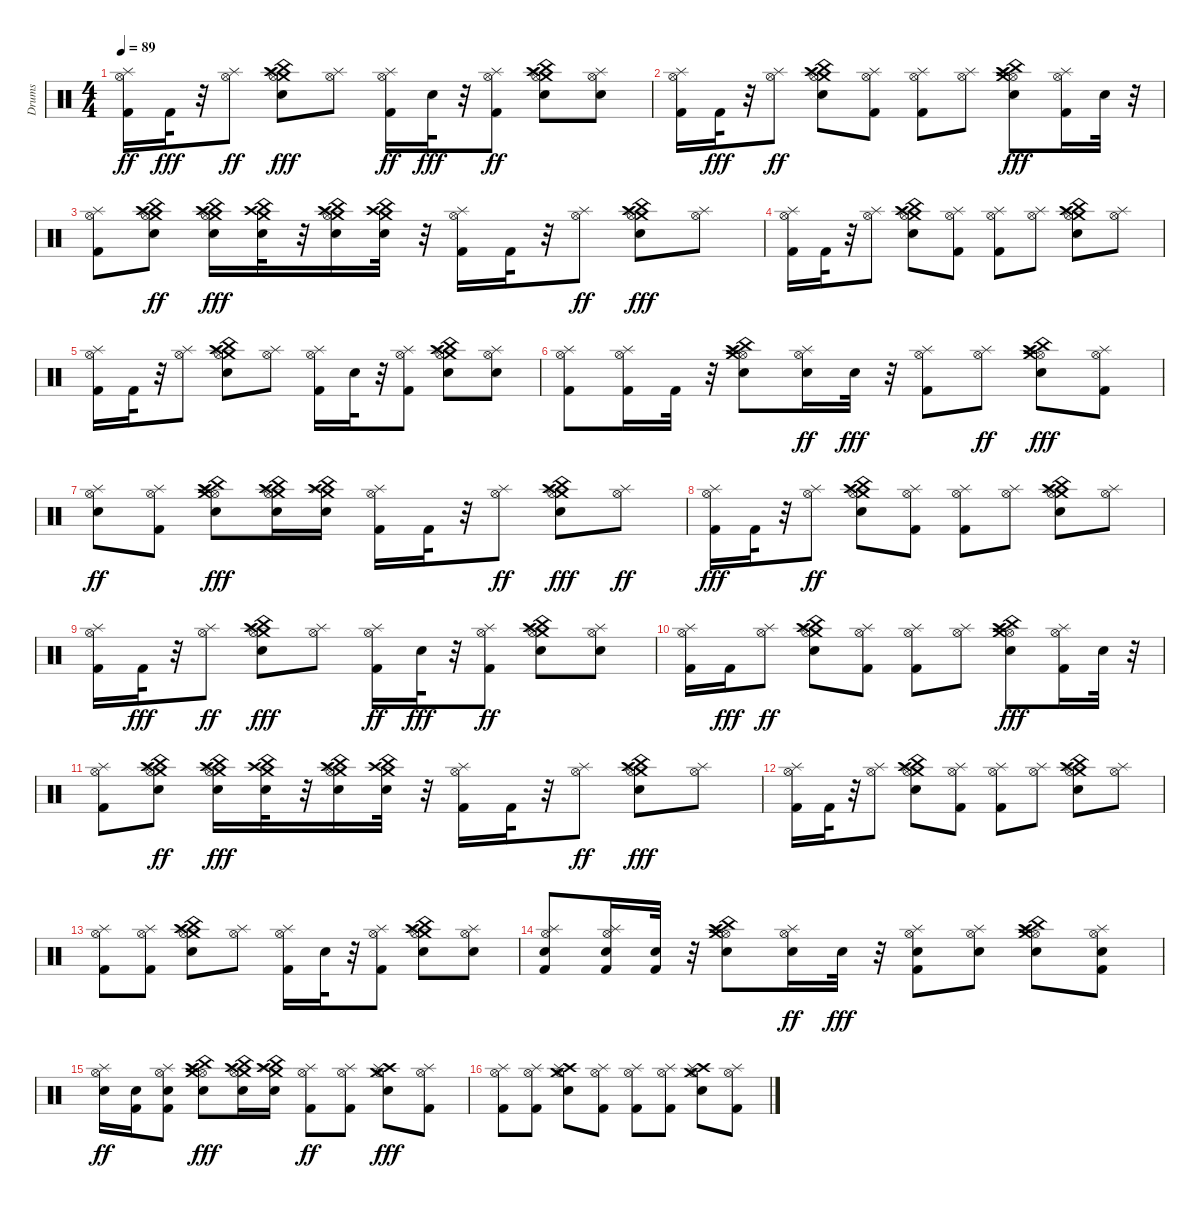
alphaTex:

\track ("Drums" "Drums") {instrument percussion}
\staff {score}
\articulation defaults
\ts (4 4)
\tempo 89
\clef neutral
\ks c
("Kick (hit) 2" "Hi-Hat (open)" "Splash (hit)").16{dy ff} "Kick (hit) 2".32{dy fff} r.32 ("Hi-Hat (open)" "Splash (hit)").8{dy ff} ("China (hit)" "Snare (hit) 2" "Crash medium (hit)" "Crash high (hit)" "Hi-Hat (open)" "Splash (hit)").8{dy fff} ("Hi-Hat (open)" "Splash (hit)").8 ("Kick (hit) 2" "Hi-Hat (open)" "Splash (hit)").16{dy ff} "Snare (hit) 2".32{dy fff} r.32 ("Kick (hit) 2" "Hi-Hat (open)" "Splash (hit)").8{dy ff} ("China (hit)" "Snare (hit) 2" "Crash high (hit)" "Crash medium (hit)" "Hi-Hat (open)" "Splash (hit)").8 ("Hi-Hat (open)" "Snare (hit) 2" "Splash (hit)").8 |
("Kick (hit) 2" "Hi-Hat (open)" "Splash (hit)").16 "Kick (hit) 2".32{dy fff} r.32 ("Hi-Hat (open)" "Splash (hit)").8{dy ff} ("Snare (hit) 2" "China (hit)" "Crash medium (hit)" "Crash high (hit)" "Hi-Hat (open)" "Splash (hit)").8 ("Hi-Hat (open)" "Kick (hit) 2" "Splash (hit)").8 ("Kick (hit) 2" "Hi-Hat (open)" "Splash (hit)").8 ("Hi-Hat (open)" "Splash (hit)").8 ("Snare (hit) 2" "Crash high (hit)" "China (hit)" "Hi-Hat (open)" "Crash medium (hit)" "Splash (hit)").8{dy fff} ("Kick (hit) 2" "Hi-Hat (open)" "Splash (hit)").16 "Snare (hit) 2".32 r.32 |
("Kick (hit) 2" "Hi-Hat (open)" "Splash (hit)").8 ("Crash high (hit)" "China (hit)" "Crash medium (hit)" "Snare (hit) 2" "Hi-Hat (open)" "Splash (hit)").8{dy ff} ("Crash medium (hit)" "China (hit)" "Crash high (hit)" "Snare (hit) 2" "Hi-Hat (open)" "Splash (hit)").16{dy fff} ("Crash medium (hit)" "China (hit)" "Crash high (hit)" "Snare (hit) 2").32 r.32 ("Crash medium (hit)" "China (hit)" "Crash high (hit)" "Hi-Hat (open)" "Snare (hit) 2" "Splash (hit)").16 ("Crash medium (hit)" "China (hit)" "Snare (hit) 2" "Crash high (hit)").32 r.32 ("Hi-Hat (open)" "Splash (hit)" "Kick (hit) 2").16 "Kick (hit) 2".32 r.32 ("Hi-Hat (open)" "Splash (hit)").8{dy ff} ("China (hit)" "Crash high (hit)" "Crash medium (hit)" "Hi-Hat (open)" "Splash (hit)" "Snare (hit) 2").8{dy fff} ("Hi-Hat (open)" "Splash (hit)").8 |
("Hi-Hat (open)" "Splash (hit)" "Kick (hit) 2").16 "Kick (hit) 2".32 r.32 ("Hi-Hat (open)" "Splash (hit)").8 ("China (hit)" "Crash medium (hit)" "Crash high (hit)" "Hi-Hat (open)" "Snare (hit) 2" "Splash (hit)").8 ("Kick (hit) 2" "Hi-Hat (open)" "Splash (hit)").8 ("Kick (hit) 2" "Hi-Hat (open)" "Splash (hit)").8 ("Hi-Hat (open)" "Splash (hit)").8 ("China (hit)" "Crash high (hit)" "Crash medium (hit)" "Hi-Hat (open)" "Snare (hit) 2" "Splash (hit)").8 ("Hi-Hat (open)" "Splash (hit)").8 |
("Kick (hit) 2" "Hi-Hat (open)" "Splash (hit)").16 "Kick (hit) 2".32 r.32 ("Hi-Hat (open)" "Splash (hit)").8 ("China (hit)" "Snare (hit) 2" "Crash medium (hit)" "Crash high (hit)" "Hi-Hat (open)" "Splash (hit)").8 ("Hi-Hat (open)" "Splash (hit)").8 ("Kick (hit) 2" "Hi-Hat (open)" "Splash (hit)").16 "Snare (hit) 2".32 r.32 ("Kick (hit) 2" "Hi-Hat (open)" "Splash (hit)").8 ("Crash high (hit)" "China (hit)" "Snare (hit) 2" "Crash medium (hit)" "Hi-Hat (open)" "Splash (hit)").8 ("Hi-Hat (open)" "Snare (hit) 2" "Splash (hit)").8 |
("Kick (hit) 2" "Hi-Hat (open)" "Splash (hit)").8 ("Kick (hit) 2" "Hi-Hat (open)" "Splash (hit)").16 "Kick (hit) 2".32 r.32 ("Snare (hit) 2" "Hi-Hat (open)" "Crash high (hit)" "China (hit)" "Crash medium (hit)" "Splash (hit)").8 ("Snare (hit) 2" "Hi-Hat (open)" "Splash (hit)").16{dy ff} "Snare (hit) 2".32{dy fff} r.32 ("Kick (hit) 2" "Hi-Hat (open)" "Splash (hit)").8 ("Hi-Hat (open)" "Splash (hit)").8{dy ff} ("Snare (hit) 2" "Hi-Hat (open)" "Splash (hit)" "Crash high (hit)" "Crash medium (hit)" "China (hit)").8{dy fff} ("Kick (hit) 2" "Hi-Hat (open)" "Splash (hit)").8 |
("Snare (hit) 2" "Hi-Hat (open)" "Splash (hit)").8{dy ff} ("Kick (hit) 2" "Hi-Hat (open)" "Splash (hit)").8 ("Hi-Hat (open)" "Snare (hit) 2" "Crash high (hit)" "Crash medium (hit)" "China (hit)" "Splash (hit)").8{dy fff} ("Crash medium (hit)" "Splash (hit)" "Hi-Hat (open)" "Snare (hit) 2" "Crash high (hit)" "China (hit)").16 ("Splash (hit)" "Crash high (hit)" "China (hit)" "Crash medium (hit)" "Snare (hit) 2").16 ("Hi-Hat (open)" "Splash (hit)" "Kick (hit) 2").16{volume 14} "Kick (hit) 2".32 r.32 ("Hi-Hat (open)" "Splash (hit)").8{dy ff} ("China (hit)" "Crash high (hit)" "Crash medium (hit)" "Hi-Hat (open)" "Splash (hit)" "Snare (hit) 2").8{dy fff} ("Hi-Hat (open)" "Splash (hit)").8{dy ff} |
("Hi-Hat (open)" "Splash (hit)" "Kick (hit) 2").16{dy fff} "Kick (hit) 2".32 r.32 ("Hi-Hat (open)" "Splash (hit)").8{dy ff} ("China (hit)" "Crash medium (hit)" "Crash high (hit)" "Hi-Hat (open)" "Snare (hit) 2" "Splash (hit)").8 ("Kick (hit) 2" "Hi-Hat (open)" "Splash (hit)").8 ("Kick (hit) 2" "Hi-Hat (open)" "Splash (hit)").8 ("Hi-Hat (open)" "Splash (hit)").8 ("China (hit)" "Crash high (hit)" "Crash medium (hit)" "Hi-Hat (open)" "Snare (hit) 2" "Splash (hit)").8 ("Hi-Hat (open)" "Splash (hit)").8 |
("Kick (hit) 2" "Hi-Hat (open)" "Splash (hit)").16 "Kick (hit) 2".32{dy fff} r.32 ("Hi-Hat (open)" "Splash (hit)").8{dy ff} ("China (hit)" "Snare (hit) 2" "Crash medium (hit)" "Crash high (hit)" "Hi-Hat (open)" "Splash (hit)").8{dy fff} ("Hi-Hat (open)" "Splash (hit)").8 ("Kick (hit) 2" "Hi-Hat (open)" "Splash (hit)").16{dy ff} "Snare (hit) 2".32{dy fff} r.32 ("Kick (hit) 2" "Hi-Hat (open)" "Splash (hit)").8{dy ff} ("China (hit)" "Snare (hit) 2" "Crash high (hit)" "Crash medium (hit)" "Hi-Hat (open)" "Splash (hit)").8 ("Hi-Hat (open)" "Snare (hit) 2" "Splash (hit)").8 |
("Kick (hit) 2" "Hi-Hat (open)" "Splash (hit)").16 "Kick (hit) 2".16{dy fff} ("Hi-Hat (open)" "Splash (hit)").8{dy ff} ("Snare (hit) 2" "China (hit)" "Crash medium (hit)" "Crash high (hit)" "Hi-Hat (open)" "Splash (hit)").8 ("Hi-Hat (open)" "Kick (hit) 2" "Splash (hit)").8 ("Kick (hit) 2" "Hi-Hat (open)" "Splash (hit)").8 ("Hi-Hat (open)" "Splash (hit)").8 ("Snare (hit) 2" "Crash high (hit)" "China (hit)" "Hi-Hat (open)" "Crash medium (hit)" "Splash (hit)").8{dy fff} ("Kick (hit) 2" "Hi-Hat (open)" "Splash (hit)").16 "Snare (hit) 2".32 r.32 |
("Kick (hit) 2" "Hi-Hat (open)" "Splash (hit)").8 ("Crash high (hit)" "China (hit)" "Crash medium (hit)" "Snare (hit) 2" "Hi-Hat (open)" "Splash (hit)").8{dy ff} ("Crash medium (hit)" "China (hit)" "Crash high (hit)" "Snare (hit) 2" "Hi-Hat (open)" "Splash (hit)").16{dy fff} ("Snare (hit) 2" "Crash medium (hit)" "China (hit)" "Crash high (hit)").32 r.32 ("Crash medium (hit)" "China (hit)" "Crash high (hit)" "Hi-Hat (open)" "Snare (hit) 2" "Splash (hit)").16 ("Crash medium (hit)" "China (hit)" "Snare (hit) 2" "Crash high (hit)").32 r.32 ("Hi-Hat (open)" "Splash (hit)" "Kick (hit) 2").16 "Kick (hit) 2".32 r.32 ("Hi-Hat (open)" "Splash (hit)").8{dy ff} ("China (hit)" "Crash high (hit)" "Crash medium (hit)" "Hi-Hat (open)" "Splash (hit)" "Snare (hit) 2").8{dy fff} ("Hi-Hat (open)" "Splash (hit)").8 |
("Hi-Hat (open)" "Splash (hit)" "Kick (hit) 2").16 "Kick (hit) 2".32 r.32 ("Hi-Hat (open)" "Splash (hit)").8 ("China (hit)" "Crash medium (hit)" "Crash high (hit)" "Hi-Hat (open)" "Snare (hit) 2" "Splash (hit)").8 ("Kick (hit) 2" "Hi-Hat (open)" "Splash (hit)").8 ("Kick (hit) 2" "Hi-Hat (open)" "Splash (hit)").8 ("Hi-Hat (open)" "Splash (hit)").8 ("China (hit)" "Crash high (hit)" "Crash medium (hit)" "Hi-Hat (open)" "Snare (hit) 2" "Splash (hit)").8 ("Hi-Hat (open)" "Splash (hit)").8 |
("Kick (hit) 2" "Hi-Hat (open)" "Splash (hit)").8 ("Kick (hit) 2" "Hi-Hat (open)" "Splash (hit)").8 ("China (hit)" "Snare (hit) 2" "Crash medium (hit)" "Crash high (hit)" "Hi-Hat (open)" "Splash (hit)").8 ("Hi-Hat (open)" "Splash (hit)").8 ("Kick (hit) 2" "Hi-Hat (open)" "Splash (hit)").16 "Snare (hit) 2".32 r.32 ("Kick (hit) 2" "Hi-Hat (open)" "Splash (hit)").8 ("Crash high (hit)" "China (hit)" "Snare (hit) 2" "Crash medium (hit)" "Hi-Hat (open)" "Splash (hit)").8 ("Hi-Hat (open)" "Snare (hit) 2" "Splash (hit)").8 |
("Kick (hit) 2" "Snare (hit) 2" "Hi-Hat (open)" "Splash (hit)").8 ("Snare (hit) 2" "Kick (hit) 2" "Hi-Hat (open)" "Splash (hit)").16 ("Kick (hit) 2" "Snare (hit) 2").32 r.32 ("Snare (hit) 2" "Hi-Hat (open)" "Crash high (hit)" "China (hit)" "Crash medium (hit)" "Splash (hit)").8 ("Snare (hit) 2" "Hi-Hat (open)" "Splash (hit)").16{dy ff} "Snare (hit) 2".32{dy fff} r.32 ("Snare (hit) 2" "Kick (hit) 2" "Hi-Hat (open)" "Splash (hit)").8 ("Hi-Hat (open)" "Splash (hit)" "Snare (hit) 2").8 ("Snare (hit) 2" "Hi-Hat (open)" "Splash (hit)" "Crash high (hit)" "Crash medium (hit)" "China (hit)").8 ("Snare (hit) 2" "Kick (hit) 2" "Hi-Hat (open)" "Splash (hit)").8 |
("Snare (hit) 2" "Hi-Hat (open)" "Splash (hit)").16{dy ff} ("Kick (hit) 2" "Snare (hit) 2").16 ("Snare (hit) 2" "Kick (hit) 2" "Hi-Hat (open)" "Splash (hit)").8 ("Hi-Hat (open)" "Snare (hit) 2" "Crash high (hit)" "Crash medium (hit)" "China (hit)" "Splash (hit)").8{dy fff} ("Crash medium (hit)" "Splash (hit)" "Hi-Hat (open)" "Snare (hit) 2" "Crash high (hit)" "China (hit)").16 ("Splash (hit)" "Crash high (hit)" "China (hit)" "Crash medium (hit)" "Snare (hit) 2").16 ("Hi-Hat (open)" "Kick (hit) 2" "Splash (hit)").8{dy ff} ("Kick (hit) 2" "Hi-Hat (open)" "Splash (hit)").8 ("Crash medium (hit)" "Crash high (hit)" "Snare (hit) 2" "Splash (hit)" "Hi-Hat (open)").8{dy fff} ("Kick (hit) 2" "Splash (hit)" "Hi-Hat (open)").8 |
("Kick (hit) 2" "Splash (hit)" "Hi-Hat (open)").8 ("Kick (hit) 2" "Splash (hit)" "Hi-Hat (open)").8 ("Crash medium (hit)" "Crash high (hit)" "Snare (hit) 2" "Splash (hit)" "Hi-Hat (open)").8 ("Kick (hit) 2" "Splash (hit)" "Hi-Hat (open)").8 ("Kick (hit) 2" "Splash (hit)" "Hi-Hat (open)").8 ("Kick (hit) 2" "Splash (hit)" "Hi-Hat (open)").8 ("Crash medium (hit)" "Crash high (hit)" "Snare (hit) 2" "Splash (hit)" "Hi-Hat (open)").8 ("Kick (hit) 2" "Splash (hit)" "Hi-Hat (open)").8
